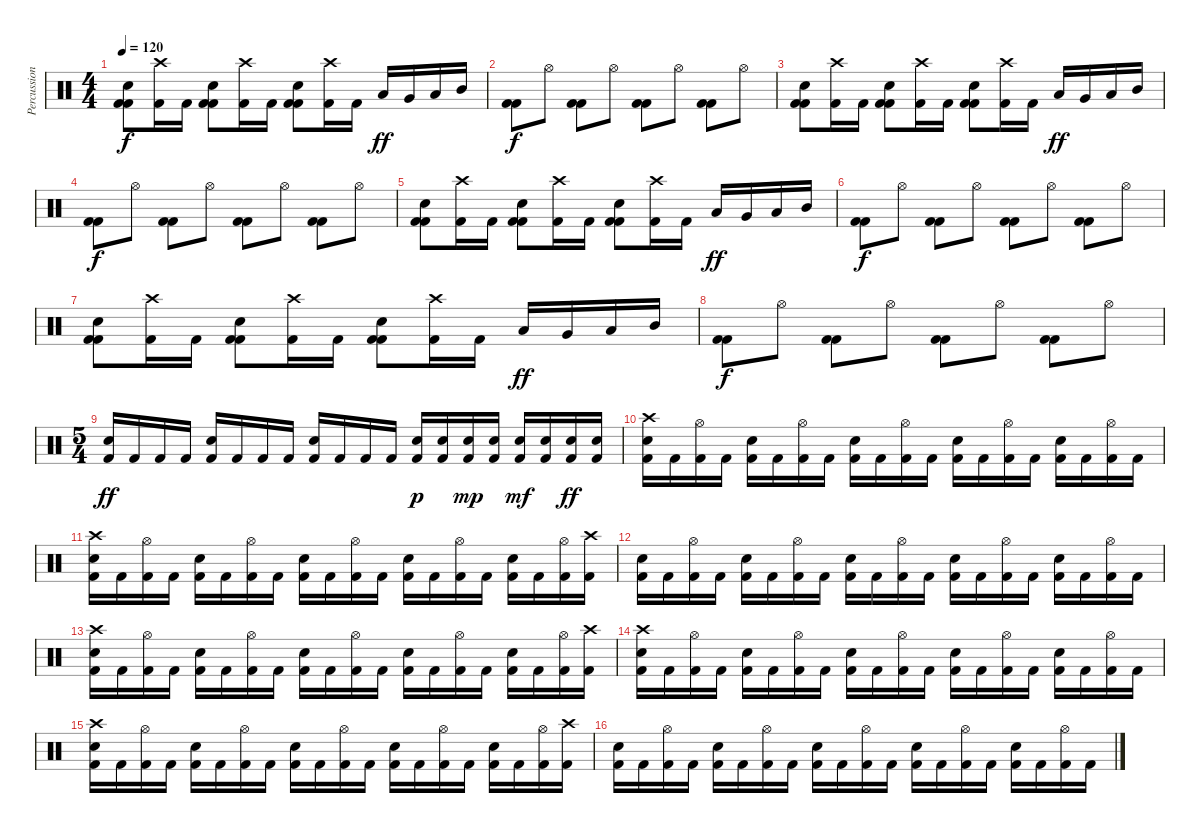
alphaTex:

\track ("Percussioni" "Percussion") {instrument percussion}
\staff {score}
\articulation defaults
\ts (4 4)
\tempo 120
\clef neutral
\ks c
("Kick (hit) 2" "Kick (hit) 2" "Electric Snare (hit)").8{dy f} ("Kick (hit) 2" "Crash high (hit)").16 "Kick (hit) 2".16 ("Kick (hit) 2" "Kick (hit) 2" "Electric Snare (hit)").8 ("Kick (hit) 2" "Crash high (hit)").16 "Kick (hit) 2".16 ("Kick (hit) 2" "Kick (hit) 2" "Electric Snare (hit)").8 ("Kick (hit) 2" "Crash high (hit)").16 "Kick (hit) 2".16 "Low Floor Tom (hit)".16{dy ff} "Very Low Tom (hit)".16 "Low Tom (hit)".16 "Mid Tom (hit)".16 |
("Kick (hit) 2" "Kick (hit) 2").8{dy f} "Hi-Hat (open)".8 ("Kick (hit) 2" "Kick (hit) 2").8 "Hi-Hat (open)".8 ("Kick (hit) 2" "Kick (hit) 2").8 "Hi-Hat (open)".8 ("Kick (hit) 2" "Kick (hit) 2").8 "Hi-Hat (open)".8 |
("Kick (hit) 2" "Kick (hit) 2" "Electric Snare (hit)").8 ("Kick (hit) 2" "Crash high (hit)").16 "Kick (hit) 2".16 ("Kick (hit) 2" "Kick (hit) 2" "Electric Snare (hit)").8 ("Kick (hit) 2" "Crash high (hit)").16 "Kick (hit) 2".16 ("Kick (hit) 2" "Kick (hit) 2" "Electric Snare (hit)").8 ("Kick (hit) 2" "Crash high (hit)").16 "Kick (hit) 2".16 "Low Floor Tom (hit)".16{dy ff} "Very Low Tom (hit)".16 "Low Tom (hit)".16 "Mid Tom (hit)".16 |
("Kick (hit) 2" "Kick (hit) 2").8{dy f} "Hi-Hat (open)".8 ("Kick (hit) 2" "Kick (hit) 2").8 "Hi-Hat (open)".8 ("Kick (hit) 2" "Kick (hit) 2").8 "Hi-Hat (open)".8 ("Kick (hit) 2" "Kick (hit) 2").8 "Hi-Hat (open)".8 |
("Kick (hit) 2" "Kick (hit) 2" "Electric Snare (hit)").8 ("Kick (hit) 2" "Crash high (hit)").16 "Kick (hit) 2".16 ("Kick (hit) 2" "Kick (hit) 2" "Electric Snare (hit)").8 ("Kick (hit) 2" "Crash high (hit)").16 "Kick (hit) 2".16 ("Kick (hit) 2" "Kick (hit) 2" "Electric Snare (hit)").8 ("Kick (hit) 2" "Crash high (hit)").16 "Kick (hit) 2".16 "Low Floor Tom (hit)".16{dy ff} "Very Low Tom (hit)".16 "Low Tom (hit)".16 "Mid Tom (hit)".16 |
("Kick (hit) 2" "Kick (hit) 2").8{dy f} "Hi-Hat (open)".8 ("Kick (hit) 2" "Kick (hit) 2").8 "Hi-Hat (open)".8 ("Kick (hit) 2" "Kick (hit) 2").8 "Hi-Hat (open)".8 ("Kick (hit) 2" "Kick (hit) 2").8 "Hi-Hat (open)".8 |
("Kick (hit) 2" "Kick (hit) 2" "Electric Snare (hit)").8 ("Kick (hit) 2" "Crash high (hit)").16 "Kick (hit) 2".16 ("Kick (hit) 2" "Kick (hit) 2" "Electric Snare (hit)").8 ("Kick (hit) 2" "Crash high (hit)").16 "Kick (hit) 2".16 ("Kick (hit) 2" "Kick (hit) 2" "Electric Snare (hit)").8 ("Kick (hit) 2" "Crash high (hit)").16 "Kick (hit) 2".16 "Low Floor Tom (hit)".16{dy ff} "Very Low Tom (hit)".16 "Low Tom (hit)".16 "Mid Tom (hit)".16 |
("Kick (hit) 2" "Kick (hit) 2").8{dy f} "Hi-Hat (open)".8 ("Kick (hit) 2" "Kick (hit) 2").8 "Hi-Hat (open)".8 ("Kick (hit) 2" "Kick (hit) 2").8 "Hi-Hat (open)".8 ("Kick (hit) 2" "Kick (hit) 2").8 "Hi-Hat (open)".8 |
\ts (5 4)
("Kick (hit) 2" "Electric Snare (hit)").16{dy ff} "Kick (hit) 2".16 "Kick (hit) 2".16 "Kick (hit) 2".16 ("Kick (hit) 2" "Electric Snare (hit)").16 "Kick (hit) 2".16 "Kick (hit) 2".16 "Kick (hit) 2".16 ("Kick (hit) 2" "Electric Snare (hit)").16 "Kick (hit) 2".16 "Kick (hit) 2".16 "Kick (hit) 2".16 ("Kick (hit) 2" "Electric Snare (hit)").16{dy p} ("Kick (hit) 2" "Electric Snare (hit)").16 ("Kick (hit) 2" "Electric Snare (hit)").16{dy mp} ("Kick (hit) 2" "Electric Snare (hit)").16 ("Kick (hit) 2" "Electric Snare (hit)").16{dy mf} ("Kick (hit) 2" "Electric Snare (hit)").16 ("Kick (hit) 2" "Electric Snare (hit)").16{dy ff} ("Kick (hit) 2" "Electric Snare (hit)").16 |
("Kick (hit) 2" "Crash high (hit)" "Electric Snare (hit)").16 "Kick (hit) 2".16 ("Kick (hit) 2" "Hi-Hat (open)").16 "Kick (hit) 2".16 ("Kick (hit) 2" "Electric Snare (hit)").16 "Kick (hit) 2".16 ("Kick (hit) 2" "Hi-Hat (open)").16 "Kick (hit) 2".16 ("Kick (hit) 2" "Electric Snare (hit)").16 "Kick (hit) 2".16 ("Kick (hit) 2" "Hi-Hat (open)").16 "Kick (hit) 2".16 ("Kick (hit) 2" "Electric Snare (hit)").16 "Kick (hit) 2".16 ("Kick (hit) 2" "Hi-Hat (open)").16 "Kick (hit) 2".16 ("Kick (hit) 2" "Electric Snare (hit)").16 "Kick (hit) 2".16 ("Kick (hit) 2" "Hi-Hat (open)").16 "Kick (hit) 2".16 |
("Kick (hit) 2" "Crash high (hit)" "Electric Snare (hit)").16 "Kick (hit) 2".16 ("Kick (hit) 2" "Hi-Hat (open)").16 "Kick (hit) 2".16 ("Kick (hit) 2" "Electric Snare (hit)").16 "Kick (hit) 2".16 ("Kick (hit) 2" "Hi-Hat (open)").16 "Kick (hit) 2".16 ("Kick (hit) 2" "Electric Snare (hit)").16 "Kick (hit) 2".16 ("Kick (hit) 2" "Hi-Hat (open)").16 "Kick (hit) 2".16 ("Kick (hit) 2" "Electric Snare (hit)").16 "Kick (hit) 2".16 ("Kick (hit) 2" "Hi-Hat (open)").16 "Kick (hit) 2".16 ("Kick (hit) 2" "Electric Snare (hit)").16 "Kick (hit) 2".16 ("Kick (hit) 2" "Hi-Hat (open)").16 ("Kick (hit) 2" "Crash high (hit)").16 |
("Kick (hit) 2" "Electric Snare (hit)").16 "Kick (hit) 2".16 ("Kick (hit) 2" "Hi-Hat (open)").16 "Kick (hit) 2".16 ("Kick (hit) 2" "Electric Snare (hit)").16 "Kick (hit) 2".16 ("Kick (hit) 2" "Hi-Hat (open)").16 "Kick (hit) 2".16 ("Kick (hit) 2" "Electric Snare (hit)").16 "Kick (hit) 2".16 ("Kick (hit) 2" "Hi-Hat (open)").16 "Kick (hit) 2".16 ("Kick (hit) 2" "Electric Snare (hit)").16 "Kick (hit) 2".16 ("Kick (hit) 2" "Hi-Hat (open)").16 "Kick (hit) 2".16 ("Kick (hit) 2" "Electric Snare (hit)").16 "Kick (hit) 2".16 ("Kick (hit) 2" "Hi-Hat (open)").16 "Kick (hit) 2".16 |
("Kick (hit) 2" "Crash high (hit)" "Electric Snare (hit)").16 "Kick (hit) 2".16 ("Kick (hit) 2" "Hi-Hat (open)").16 "Kick (hit) 2".16 ("Kick (hit) 2" "Electric Snare (hit)").16 "Kick (hit) 2".16 ("Kick (hit) 2" "Hi-Hat (open)").16 "Kick (hit) 2".16 ("Kick (hit) 2" "Electric Snare (hit)").16 "Kick (hit) 2".16 ("Kick (hit) 2" "Hi-Hat (open)").16 "Kick (hit) 2".16 ("Kick (hit) 2" "Electric Snare (hit)").16 "Kick (hit) 2".16 ("Kick (hit) 2" "Hi-Hat (open)").16 "Kick (hit) 2".16 ("Kick (hit) 2" "Electric Snare (hit)").16 "Kick (hit) 2".16 ("Kick (hit) 2" "Hi-Hat (open)").16 ("Kick (hit) 2" "Crash high (hit)").16 |
("Kick (hit) 2" "Crash high (hit)" "Electric Snare (hit)").16 "Kick (hit) 2".16 ("Kick (hit) 2" "Hi-Hat (open)").16 "Kick (hit) 2".16 ("Kick (hit) 2" "Electric Snare (hit)").16 "Kick (hit) 2".16 ("Kick (hit) 2" "Hi-Hat (open)").16 "Kick (hit) 2".16 ("Kick (hit) 2" "Electric Snare (hit)").16 "Kick (hit) 2".16 ("Kick (hit) 2" "Hi-Hat (open)").16 "Kick (hit) 2".16 ("Kick (hit) 2" "Electric Snare (hit)").16 "Kick (hit) 2".16 ("Kick (hit) 2" "Hi-Hat (open)").16 "Kick (hit) 2".16 ("Kick (hit) 2" "Electric Snare (hit)").16 "Kick (hit) 2".16 ("Kick (hit) 2" "Hi-Hat (open)").16 "Kick (hit) 2".16 |
("Kick (hit) 2" "Crash high (hit)" "Electric Snare (hit)").16 "Kick (hit) 2".16 ("Kick (hit) 2" "Hi-Hat (open)").16 "Kick (hit) 2".16 ("Kick (hit) 2" "Electric Snare (hit)").16 "Kick (hit) 2".16 ("Kick (hit) 2" "Hi-Hat (open)").16 "Kick (hit) 2".16 ("Kick (hit) 2" "Electric Snare (hit)").16 "Kick (hit) 2".16 ("Kick (hit) 2" "Hi-Hat (open)").16 "Kick (hit) 2".16 ("Kick (hit) 2" "Electric Snare (hit)").16 "Kick (hit) 2".16 ("Kick (hit) 2" "Hi-Hat (open)").16 "Kick (hit) 2".16 ("Kick (hit) 2" "Electric Snare (hit)").16 "Kick (hit) 2".16 ("Kick (hit) 2" "Hi-Hat (open)").16 ("Kick (hit) 2" "Crash high (hit)").16 |
("Kick (hit) 2" "Electric Snare (hit)").16 "Kick (hit) 2".16 ("Kick (hit) 2" "Hi-Hat (open)").16 "Kick (hit) 2".16 ("Kick (hit) 2" "Electric Snare (hit)").16 "Kick (hit) 2".16 ("Kick (hit) 2" "Hi-Hat (open)").16 "Kick (hit) 2".16 ("Kick (hit) 2" "Electric Snare (hit)").16 "Kick (hit) 2".16 ("Kick (hit) 2" "Hi-Hat (open)").16 "Kick (hit) 2".16 ("Kick (hit) 2" "Electric Snare (hit)").16 "Kick (hit) 2".16 ("Kick (hit) 2" "Hi-Hat (open)").16 "Kick (hit) 2".16 ("Kick (hit) 2" "Electric Snare (hit)").16 "Kick (hit) 2".16 ("Kick (hit) 2" "Hi-Hat (open)").16 "Kick (hit) 2".16
